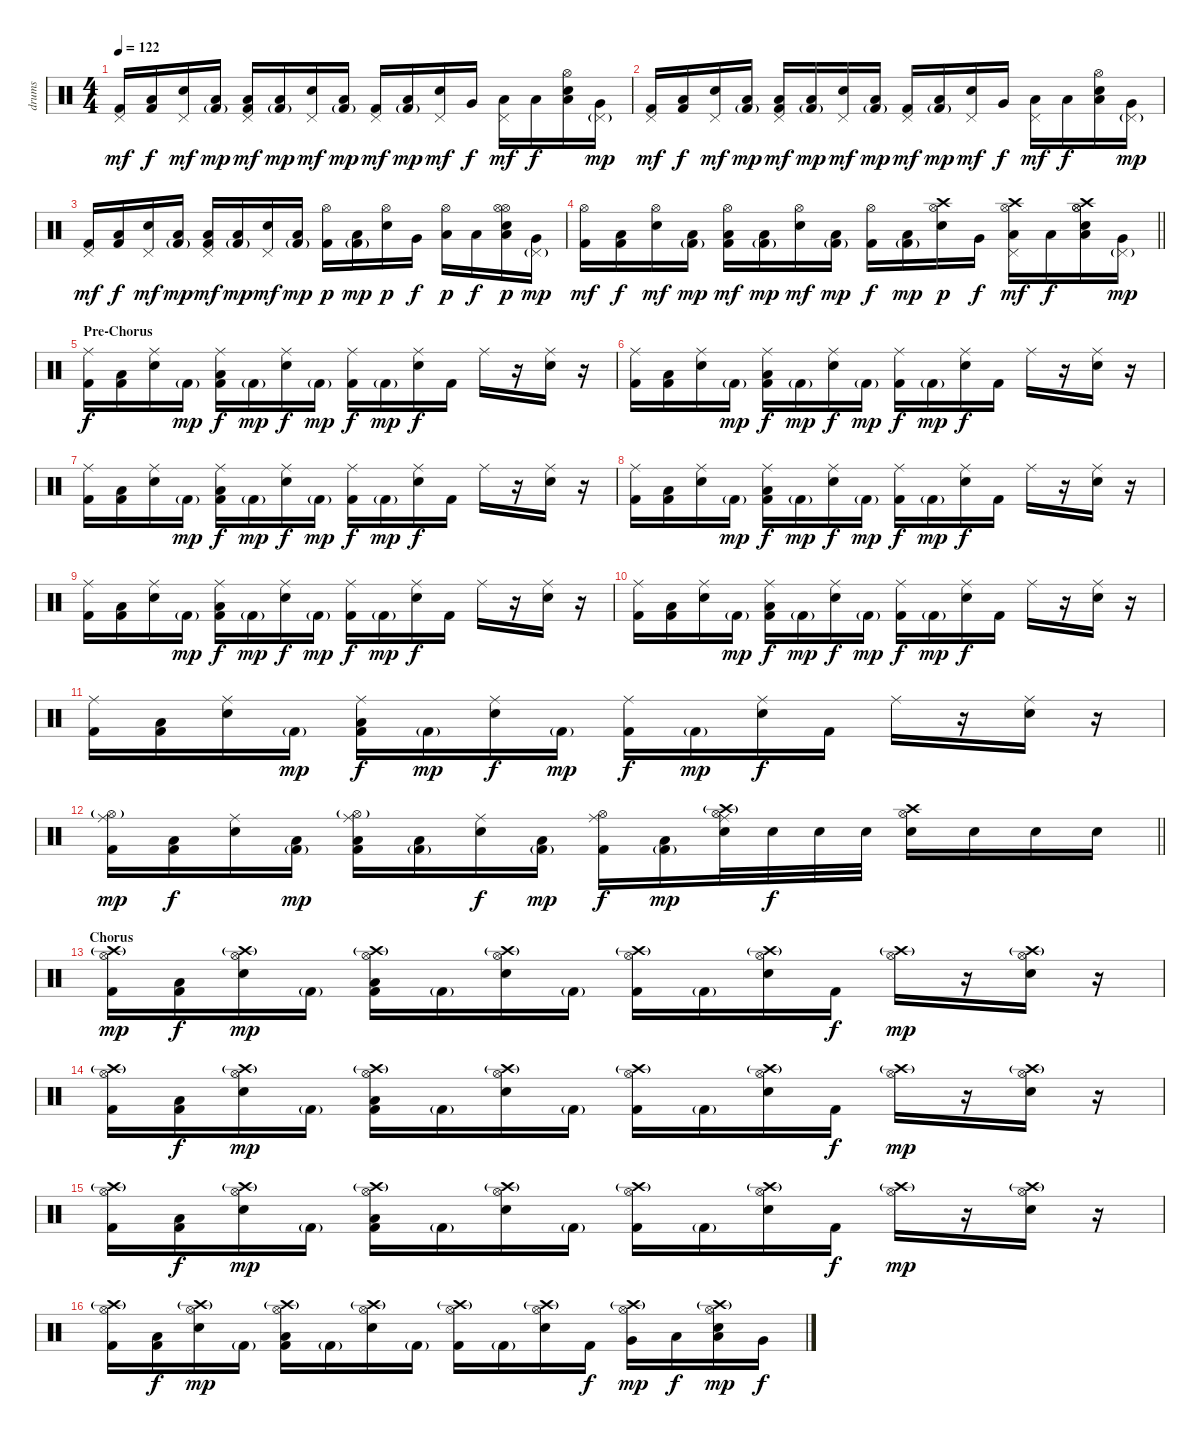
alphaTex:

\track ("drums" "drums") {instrument percussion}
\staff {score}
\articulation defaults
\ts (4 4)
\tempo 122
\clef neutral
\ks c
("Kick (hit) 2" "Pedal Hi-Hat (hit)").16{dy mf} ("Low Floor Tom (hit)" "Kick (hit) 2").16{dy f} ("Snare (hit) 2" "Pedal Hi-Hat (hit)").16{dy mf} ("Low Floor Tom (hit)" "Kick (hit) 2"{g}).16{bd 60 dy mp} ("Kick (hit) 2" "Low Floor Tom (hit)" "Pedal Hi-Hat (hit)").16{dy mf} ("Low Floor Tom (hit)" "Kick (hit) 2"{g}).16{bd 60 dy mp} ("Snare (hit) 2" "Pedal Hi-Hat (hit)").16{dy mf} ("Low Floor Tom (hit)" "Kick (hit) 2"{g}).16{bu 60 dy mp} ("Kick (hit) 2" "Pedal Hi-Hat (hit)").16{dy mf} ("Low Floor Tom (hit)" "Kick (hit) 2"{g}).16{bd 60 dy mp} ("Snare (hit) 2" "Pedal Hi-Hat (hit)").16{dy mf} "Very Low Tom (hit)".16{dy f} ("Low Floor Tom (hit)" "Pedal Hi-Hat (hit)").16{bd 60 dy mf} "Low Tom (hit)".16{bu 60 dy f} ("Snare (hit) 2" "Low Floor Tom (hit)" "Hi-Hat (open)").16{bd 60} ("Very Low Tom (hit)" "Pedal Hi-Hat (hit)"{g}).16{bd 60 dy mp} |
("Kick (hit) 2" "Pedal Hi-Hat (hit)").16{dy mf} ("Low Floor Tom (hit)" "Kick (hit) 2").16{dy f} ("Snare (hit) 2" "Pedal Hi-Hat (hit)").16{dy mf} ("Low Floor Tom (hit)" "Kick (hit) 2"{g}).16{bd 60 dy mp} ("Kick (hit) 2" "Low Floor Tom (hit)" "Pedal Hi-Hat (hit)").16{dy mf} ("Low Floor Tom (hit)" "Kick (hit) 2"{g}).16{bd 60 dy mp} ("Snare (hit) 2" "Pedal Hi-Hat (hit)").16{dy mf} ("Low Floor Tom (hit)" "Kick (hit) 2"{g}).16{bu 60 dy mp} ("Kick (hit) 2" "Pedal Hi-Hat (hit)").16{dy mf} ("Low Floor Tom (hit)" "Kick (hit) 2"{g}).16{bd 60 dy mp} ("Snare (hit) 2" "Pedal Hi-Hat (hit)").16{dy mf} "Very Low Tom (hit)".16{dy f} ("Low Floor Tom (hit)" "Pedal Hi-Hat (hit)").16{bd 60 dy mf} "Low Tom (hit)".16{bu 60 dy f} ("Snare (hit) 2" "Low Floor Tom (hit)" "Hi-Hat (open)").16{bd 60} ("Very Low Tom (hit)" "Pedal Hi-Hat (hit)"{g}).16{bd 60 dy mp} |
("Kick (hit) 2" "Pedal Hi-Hat (hit)").16{dy mf} ("Low Floor Tom (hit)" "Kick (hit) 2").16{dy f} ("Snare (hit) 2" "Pedal Hi-Hat (hit)").16{dy mf} ("Low Floor Tom (hit)" "Kick (hit) 2"{g}).16{bd 60 dy mp} ("Kick (hit) 2" "Low Floor Tom (hit)" "Pedal Hi-Hat (hit)").16{dy mf} ("Low Floor Tom (hit)" "Kick (hit) 2"{g}).16{bd 60 dy mp} ("Snare (hit) 2" "Pedal Hi-Hat (hit)").16{dy mf} ("Low Floor Tom (hit)" "Kick (hit) 2"{g}).16{bu 60 dy mp} ("Hi-Hat (open)" "Kick (hit) 2").16{dy p} ("Low Floor Tom (hit)" "Kick (hit) 2"{g}).16{bd 60 dy mp} ("Hi-Hat (open)" "Snare (hit) 2").16{dy p} "Very Low Tom (hit)".16{dy f} ("Hi-Hat (open)" "Low Floor Tom (hit)").16{bd 60 dy p} "Low Tom (hit)".16{bu 60 dy f} ("Hi-Hat (open)" "Snare (hit) 2" "Low Floor Tom (hit)" "Hi-Hat (open)").16{bd 60 dy p} ("Very Low Tom (hit)" "Pedal Hi-Hat (hit)"{g}).16{bd 60 dy mp} |
\barLineRight lightlight
("Hi-Hat (open)" "Kick (hit) 2").16{dy mf} ("Low Floor Tom (hit)" "Kick (hit) 2").16{dy f} ("Hi-Hat (open)" "Snare (hit) 2").16{dy mf} ("Low Floor Tom (hit)" "Kick (hit) 2"{g}).16{bd 60 dy mp} ("Hi-Hat (open)" "Kick (hit) 2" "Low Floor Tom (hit)").16{dy mf} ("Low Floor Tom (hit)" "Kick (hit) 2"{g}).16{bd 60 dy mp} ("Hi-Hat (open)" "Snare (hit) 2").16{dy mf} ("Low Floor Tom (hit)" "Kick (hit) 2"{g}).16{bu 60 dy mp} ("Hi-Hat (open)" "Kick (hit) 2").16{dy f} ("Low Floor Tom (hit)" "Kick (hit) 2"{g}).16{bd 60 dy mp} ("Hi-Hat (open)" "Snare (hit) 2" "Crash high (hit)").16{dy p} "Very Low Tom (hit)".16{dy f} ("Hi-Hat (open)" "Low Floor Tom (hit)" "Crash high (hit)" "Pedal Hi-Hat (hit)").16{bd 60 dy mf} "Low Tom (hit)".16{bu 60 dy f} ("Hi-Hat (open)" "Snare (hit) 2" "Low Floor Tom (hit)" "Hi-Hat (open)" "Crash high (hit)").16{bd 60} ("Very Low Tom (hit)" "Pedal Hi-Hat (hit)"{g}).16{bd 60 dy mp} |
\section ("" "Pre-Chorus")
("Kick (hit) 2" "Ride (middle)").16{dy f} ("Low Floor Tom (hit)" "Kick (hit) 2").16 ("Snare (hit) 2" "Ride (middle)").16 "Kick (hit) 2"{g}.16{bd 60 dy mp} ("Kick (hit) 2" "Low Floor Tom (hit)" "Ride (middle)").16{dy f} "Kick (hit) 2"{g}.16{bd 60 dy mp} ("Snare (hit) 2" "Ride (middle)").16{dy f} "Kick (hit) 2"{g}.16{bu 60 dy mp} ("Kick (hit) 2" "Ride (middle)").16{dy f} "Kick (hit) 2"{g}.16{bd 60 dy mp} ("Snare (hit) 2" "Ride (middle)").16{dy f} "Kick (hit) 2".16 "Ride (middle)".16{bd 60} r.16 ("Snare (hit) 2" "Ride (middle)").16{bd 60} r.16 |
("Kick (hit) 2" "Ride (middle)").16 ("Low Floor Tom (hit)" "Kick (hit) 2").16 ("Snare (hit) 2" "Ride (middle)").16 "Kick (hit) 2"{g}.16{bd 60 dy mp} ("Kick (hit) 2" "Low Floor Tom (hit)" "Ride (middle)").16{dy f} "Kick (hit) 2"{g}.16{bd 60 dy mp} ("Snare (hit) 2" "Ride (middle)").16{dy f} "Kick (hit) 2"{g}.16{bu 60 dy mp} ("Kick (hit) 2" "Ride (middle)").16{dy f} "Kick (hit) 2"{g}.16{bd 60 dy mp} ("Snare (hit) 2" "Ride (middle)").16{dy f} "Kick (hit) 2".16 "Ride (middle)".16{bd 60} r.16 ("Snare (hit) 2" "Ride (middle)").16{bd 60} r.16 |
("Kick (hit) 2" "Ride (middle)").16 ("Low Floor Tom (hit)" "Kick (hit) 2").16 ("Snare (hit) 2" "Ride (middle)").16 "Kick (hit) 2"{g}.16{bd 60 dy mp} ("Kick (hit) 2" "Low Floor Tom (hit)" "Ride (middle)").16{dy f} "Kick (hit) 2"{g}.16{bd 60 dy mp} ("Snare (hit) 2" "Ride (middle)").16{dy f} "Kick (hit) 2"{g}.16{bu 60 dy mp} ("Kick (hit) 2" "Ride (middle)").16{dy f} "Kick (hit) 2"{g}.16{bd 60 dy mp} ("Snare (hit) 2" "Ride (middle)").16{dy f} "Kick (hit) 2".16 "Ride (middle)".16{bd 60} r.16 ("Snare (hit) 2" "Ride (middle)").16{bd 60} r.16 |
("Kick (hit) 2" "Ride (middle)").16 ("Low Floor Tom (hit)" "Kick (hit) 2").16 ("Snare (hit) 2" "Ride (middle)").16 "Kick (hit) 2"{g}.16{bd 60 dy mp} ("Kick (hit) 2" "Low Floor Tom (hit)" "Ride (middle)").16{dy f} "Kick (hit) 2"{g}.16{bd 60 dy mp} ("Snare (hit) 2" "Ride (middle)").16{dy f} "Kick (hit) 2"{g}.16{bu 60 dy mp} ("Kick (hit) 2" "Ride (middle)").16{dy f} "Kick (hit) 2"{g}.16{bd 60 dy mp} ("Snare (hit) 2" "Ride (middle)").16{dy f} "Kick (hit) 2".16 "Ride (middle)".16{bd 60} r.16 ("Snare (hit) 2" "Ride (middle)").16{bd 60} r.16 |
("Kick (hit) 2" "Ride (middle)").16 ("Low Floor Tom (hit)" "Kick (hit) 2").16 ("Snare (hit) 2" "Ride (middle)").16 "Kick (hit) 2"{g}.16{bd 60 dy mp} ("Kick (hit) 2" "Low Floor Tom (hit)" "Ride (middle)").16{dy f} "Kick (hit) 2"{g}.16{bd 60 dy mp} ("Snare (hit) 2" "Ride (middle)").16{dy f} "Kick (hit) 2"{g}.16{bu 60 dy mp} ("Kick (hit) 2" "Ride (middle)").16{dy f} "Kick (hit) 2"{g}.16{bd 60 dy mp} ("Snare (hit) 2" "Ride (middle)").16{dy f} "Kick (hit) 2".16 "Ride (middle)".16{bd 60} r.16 ("Snare (hit) 2" "Ride (middle)").16{bd 60} r.16 |
("Kick (hit) 2" "Ride (middle)").16 ("Low Floor Tom (hit)" "Kick (hit) 2").16 ("Snare (hit) 2" "Ride (middle)").16 "Kick (hit) 2"{g}.16{bd 60 dy mp} ("Kick (hit) 2" "Low Floor Tom (hit)" "Ride (middle)").16{dy f} "Kick (hit) 2"{g}.16{bd 60 dy mp} ("Snare (hit) 2" "Ride (middle)").16{dy f} "Kick (hit) 2"{g}.16{bu 60 dy mp} ("Kick (hit) 2" "Ride (middle)").16{dy f} "Kick (hit) 2"{g}.16{bd 60 dy mp} ("Snare (hit) 2" "Ride (middle)").16{dy f} "Kick (hit) 2".16 "Ride (middle)".16{bd 60} r.16 ("Snare (hit) 2" "Ride (middle)").16{bd 60} r.16 |
("Kick (hit) 2" "Ride (middle)").16 ("Low Floor Tom (hit)" "Kick (hit) 2").16 ("Snare (hit) 2" "Ride (middle)").16 "Kick (hit) 2"{g}.16{bd 60 dy mp} ("Kick (hit) 2" "Low Floor Tom (hit)" "Ride (middle)").16{dy f} "Kick (hit) 2"{g}.16{bd 60 dy mp} ("Snare (hit) 2" "Ride (middle)").16{dy f} "Kick (hit) 2"{g}.16{bu 60 dy mp} ("Kick (hit) 2" "Ride (middle)").16{dy f} "Kick (hit) 2"{g}.16{bd 60 dy mp} ("Snare (hit) 2" "Ride (middle)").16{dy f} "Kick (hit) 2".16 "Ride (middle)".16{bd 60} r.16 ("Snare (hit) 2" "Ride (middle)").16{bd 60} r.16 |
\barLineRight lightlight
("Hi-Hat (open)"{g} "Kick (hit) 2" "Ride (middle)").16{dy mp} ("Low Floor Tom (hit)" "Kick (hit) 2").16{dy f} ("Snare (hit) 2" "Ride (middle)").16 ("Low Floor Tom (hit)" "Kick (hit) 2"{g}).16{bd 60 dy mp} ("Hi-Hat (open)"{g} "Kick (hit) 2" "Low Floor Tom (hit)" "Ride (middle)").16 ("Low Floor Tom (hit)" "Kick (hit) 2"{g}).16{bd 60} ("Snare (hit) 2" "Ride (middle)").16{dy f} ("Low Floor Tom (hit)" "Kick (hit) 2"{g}).16{bu 60 dy mp} ("Hi-Hat (open)" "Kick (hit) 2" "Ride (middle)").16{dy f} ("Low Floor Tom (hit)" "Kick (hit) 2"{g}).16{bd 60 dy mp} ("Hi-Hat (open)" "Snare (hit) 2" "Crash high (hit)"{g} "Ride (middle)").32 "Snare (hit) 2".32{dy f} "Snare (hit) 2".32 "Snare (hit) 2".32 ("Hi-Hat (open)" "Snare (hit) 2" "Crash high (hit)").16 "Snare (hit) 2".16 "Snare (hit) 2".16 "Snare (hit) 2".16 |
\section ("" "Chorus")
("Kick (hit) 2" "Crash high (hit)"{g} "Hi-Hat (open)").16{dy mp} ("Low Floor Tom (hit)" "Kick (hit) 2").16{dy f} ("Snare (hit) 2" "Crash high (hit)"{g} "Hi-Hat (open)").16{dy mp} "Kick (hit) 2"{g}.16{bd 60} ("Kick (hit) 2" "Low Floor Tom (hit)" "Crash high (hit)"{g} "Hi-Hat (open)").16 "Kick (hit) 2"{g}.16{bd 60} ("Snare (hit) 2" "Crash high (hit)"{g} "Hi-Hat (open)").16 "Kick (hit) 2"{g}.16{bu 60} ("Kick (hit) 2" "Crash high (hit)"{g} "Hi-Hat (open)").16 "Kick (hit) 2"{g}.16{bd 60} ("Snare (hit) 2" "Crash high (hit)"{g} "Hi-Hat (open)").16 "Kick (hit) 2".16{dy f} ("Crash high (hit)"{g} "Hi-Hat (open)").16{bd 60 dy mp} r.16 ("Snare (hit) 2" "Crash high (hit)"{g} "Hi-Hat (open)").16{bd 60} r.16 |
("Kick (hit) 2" "Crash high (hit)"{g} "Hi-Hat (open)").16 ("Low Floor Tom (hit)" "Kick (hit) 2").16{dy f} ("Snare (hit) 2" "Crash high (hit)"{g} "Hi-Hat (open)").16{dy mp} "Kick (hit) 2"{g}.16{bd 60} ("Kick (hit) 2" "Low Floor Tom (hit)" "Crash high (hit)"{g} "Hi-Hat (open)").16 "Kick (hit) 2"{g}.16{bd 60} ("Snare (hit) 2" "Crash high (hit)"{g} "Hi-Hat (open)").16 "Kick (hit) 2"{g}.16{bu 60} ("Kick (hit) 2" "Crash high (hit)"{g} "Hi-Hat (open)").16 "Kick (hit) 2"{g}.16{bd 60} ("Snare (hit) 2" "Crash high (hit)"{g} "Hi-Hat (open)").16 "Kick (hit) 2".16{dy f} ("Crash high (hit)"{g} "Hi-Hat (open)").16{bd 60 dy mp} r.16 ("Snare (hit) 2" "Crash high (hit)"{g} "Hi-Hat (open)").16{bd 60} r.16 |
("Kick (hit) 2" "Crash high (hit)"{g} "Hi-Hat (open)").16 ("Low Floor Tom (hit)" "Kick (hit) 2").16{dy f} ("Snare (hit) 2" "Crash high (hit)"{g} "Hi-Hat (open)").16{dy mp} "Kick (hit) 2"{g}.16{bd 60} ("Kick (hit) 2" "Low Floor Tom (hit)" "Crash high (hit)"{g} "Hi-Hat (open)").16 "Kick (hit) 2"{g}.16{bd 60} ("Snare (hit) 2" "Crash high (hit)"{g} "Hi-Hat (open)").16 "Kick (hit) 2"{g}.16{bu 60} ("Kick (hit) 2" "Crash high (hit)"{g} "Hi-Hat (open)").16 "Kick (hit) 2"{g}.16{bd 60} ("Snare (hit) 2" "Crash high (hit)"{g} "Hi-Hat (open)").16 "Kick (hit) 2".16{dy f} ("Crash high (hit)"{g} "Hi-Hat (open)").16{bd 60 dy mp} r.16 ("Snare (hit) 2" "Crash high (hit)"{g} "Hi-Hat (open)").16{bd 60} r.16 |
("Kick (hit) 2" "Crash high (hit)"{g} "Hi-Hat (open)").16 ("Low Floor Tom (hit)" "Kick (hit) 2").16{dy f} ("Snare (hit) 2" "Crash high (hit)"{g} "Hi-Hat (open)").16{dy mp} "Kick (hit) 2"{g}.16{bd 60} ("Kick (hit) 2" "Low Floor Tom (hit)" "Crash high (hit)"{g} "Hi-Hat (open)").16 "Kick (hit) 2"{g}.16{bd 60} ("Snare (hit) 2" "Crash high (hit)"{g} "Hi-Hat (open)").16 "Kick (hit) 2"{g}.16{bu 60} ("Kick (hit) 2" "Crash high (hit)"{g} "Hi-Hat (open)").16 "Kick (hit) 2"{g}.16{bd 60} ("Snare (hit) 2" "Crash high (hit)"{g} "Hi-Hat (open)").16 "Kick (hit) 2".16{dy f} ("Very Low Tom (hit)" "Crash high (hit)"{g} "Hi-Hat (open)").16{bd 60 dy mp} "Low Floor Tom (hit)".16{dy f} ("Snare (hit) 2" "Low Tom (hit)" "Crash high (hit)"{g} "Hi-Hat (open)").16{bd 60 dy mp} "Very Low Tom (hit)".16{dy f}
